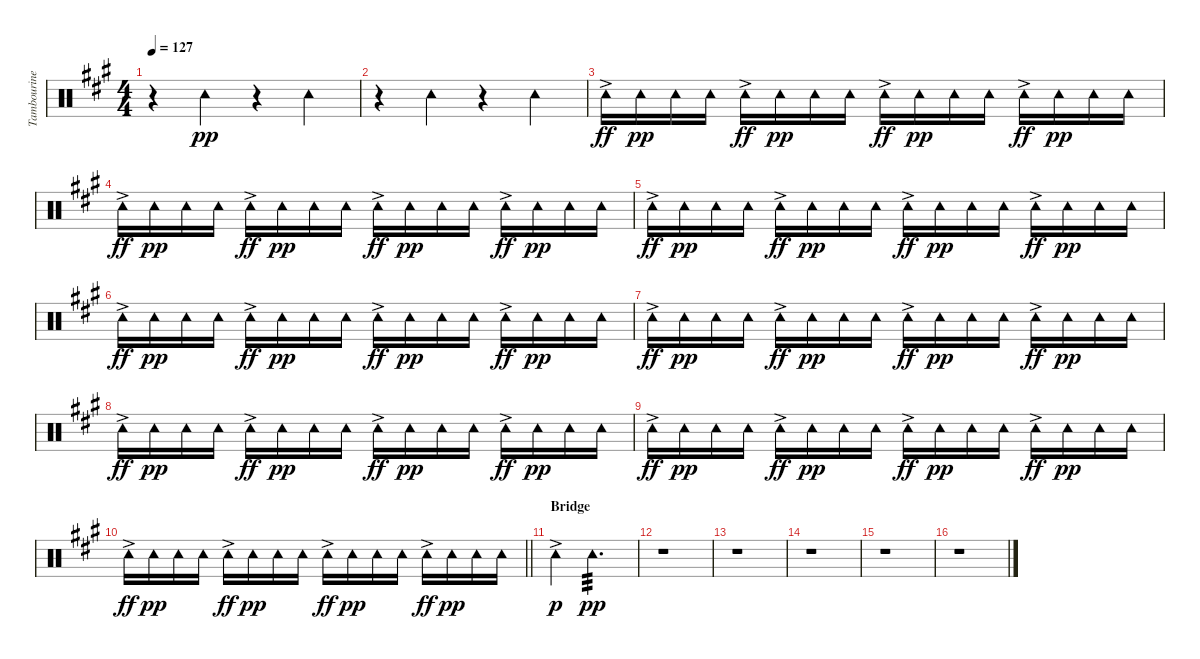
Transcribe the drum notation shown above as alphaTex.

\track ("Tambourine" "Tambourine") {instrument percussion}
\staff {score}
\articulation defaults
\ts (4 4)
\tempo 127
\clef neutral
\ks a
r.4{dy pp} "Tambourine (hit)".4 r.4 "Tambourine (hit)".4 |
r.4 "Tambourine (hit)".4 r.4 "Tambourine (hit)".4 |
"Tambourine (hit)"{ac}.16{dy ff volume 5} "Tambourine (hit)".16{dy pp} "Tambourine (hit)".16 "Tambourine (hit)".16 "Tambourine (hit)"{ac}.16{dy ff} "Tambourine (hit)".16{dy pp} "Tambourine (hit)".16 "Tambourine (hit)".16 "Tambourine (hit)"{ac}.16{dy ff} "Tambourine (hit)".16{dy pp} "Tambourine (hit)".16 "Tambourine (hit)".16 "Tambourine (hit)"{ac}.16{dy ff} "Tambourine (hit)".16{dy pp} "Tambourine (hit)".16 "Tambourine (hit)".16 |
"Tambourine (hit)"{ac}.16{dy ff} "Tambourine (hit)".16{dy pp} "Tambourine (hit)".16 "Tambourine (hit)".16 "Tambourine (hit)"{ac}.16{dy ff} "Tambourine (hit)".16{dy pp} "Tambourine (hit)".16 "Tambourine (hit)".16 "Tambourine (hit)"{ac}.16{dy ff} "Tambourine (hit)".16{dy pp} "Tambourine (hit)".16 "Tambourine (hit)".16 "Tambourine (hit)"{ac}.16{dy ff} "Tambourine (hit)".16{dy pp} "Tambourine (hit)".16 "Tambourine (hit)".16 |
"Tambourine (hit)"{ac}.16{dy ff} "Tambourine (hit)".16{dy pp} "Tambourine (hit)".16 "Tambourine (hit)".16 "Tambourine (hit)"{ac}.16{dy ff} "Tambourine (hit)".16{dy pp} "Tambourine (hit)".16 "Tambourine (hit)".16 "Tambourine (hit)"{ac}.16{dy ff} "Tambourine (hit)".16{dy pp} "Tambourine (hit)".16 "Tambourine (hit)".16 "Tambourine (hit)"{ac}.16{dy ff} "Tambourine (hit)".16{dy pp} "Tambourine (hit)".16 "Tambourine (hit)".16 |
"Tambourine (hit)"{ac}.16{dy ff} "Tambourine (hit)".16{dy pp} "Tambourine (hit)".16 "Tambourine (hit)".16 "Tambourine (hit)"{ac}.16{dy ff} "Tambourine (hit)".16{dy pp} "Tambourine (hit)".16 "Tambourine (hit)".16 "Tambourine (hit)"{ac}.16{dy ff} "Tambourine (hit)".16{dy pp} "Tambourine (hit)".16 "Tambourine (hit)".16 "Tambourine (hit)"{ac}.16{dy ff} "Tambourine (hit)".16{dy pp} "Tambourine (hit)".16 "Tambourine (hit)".16 |
"Tambourine (hit)"{ac}.16{dy ff} "Tambourine (hit)".16{dy pp} "Tambourine (hit)".16 "Tambourine (hit)".16 "Tambourine (hit)"{ac}.16{dy ff} "Tambourine (hit)".16{dy pp} "Tambourine (hit)".16 "Tambourine (hit)".16 "Tambourine (hit)"{ac}.16{dy ff} "Tambourine (hit)".16{dy pp} "Tambourine (hit)".16 "Tambourine (hit)".16 "Tambourine (hit)"{ac}.16{dy ff} "Tambourine (hit)".16{dy pp} "Tambourine (hit)".16 "Tambourine (hit)".16 |
"Tambourine (hit)"{ac}.16{dy ff} "Tambourine (hit)".16{dy pp} "Tambourine (hit)".16 "Tambourine (hit)".16 "Tambourine (hit)"{ac}.16{dy ff} "Tambourine (hit)".16{dy pp} "Tambourine (hit)".16 "Tambourine (hit)".16 "Tambourine (hit)"{ac}.16{dy ff} "Tambourine (hit)".16{dy pp} "Tambourine (hit)".16 "Tambourine (hit)".16 "Tambourine (hit)"{ac}.16{dy ff} "Tambourine (hit)".16{dy pp} "Tambourine (hit)".16 "Tambourine (hit)".16 |
"Tambourine (hit)"{ac}.16{dy ff} "Tambourine (hit)".16{dy pp} "Tambourine (hit)".16 "Tambourine (hit)".16 "Tambourine (hit)"{ac}.16{dy ff} "Tambourine (hit)".16{dy pp} "Tambourine (hit)".16 "Tambourine (hit)".16 "Tambourine (hit)"{ac}.16{dy ff} "Tambourine (hit)".16{dy pp} "Tambourine (hit)".16 "Tambourine (hit)".16 "Tambourine (hit)"{ac}.16{dy ff} "Tambourine (hit)".16{dy pp} "Tambourine (hit)".16 "Tambourine (hit)".16 |
\barLineRight lightlight "Tambourine (hit)"{ac}.16{dy ff} "Tambourine (hit)".16{dy pp} "Tambourine (hit)".16 "Tambourine (hit)".16 "Tambourine (hit)"{ac}.16{dy ff} "Tambourine (hit)".16{dy pp} "Tambourine (hit)".16 "Tambourine (hit)".16 "Tambourine (hit)"{ac}.16{dy ff} "Tambourine (hit)".16{dy pp} "Tambourine (hit)".16 "Tambourine (hit)".16 "Tambourine (hit)"{ac}.16{dy ff} "Tambourine (hit)".16{dy pp} "Tambourine (hit)".16 "Tambourine (hit)".16
|
\section ("" "Bridge")
"Tambourine (hit)"{ac}.4{dy p} "Tambourine (hit)".2{d tp 3 dy pp volume 0} |
r.1 |
r.1 |
r.1 |
r.1 |
r.1
